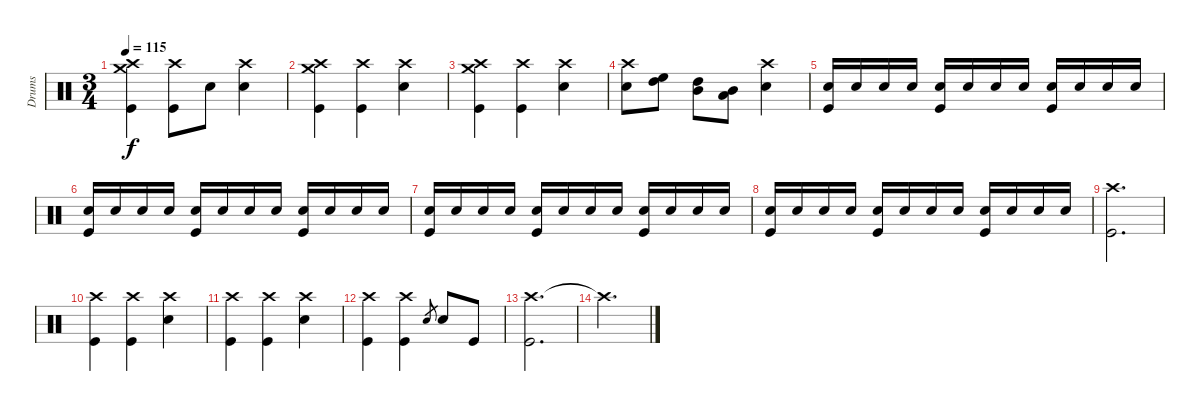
\track ("Drums" "Drums") {instrument percussion}
\staff {score}
\articulation defaults
\ts (3 4)
\tempo 115
\clef neutral
\ks c
("Crash high (hit)" "Crash medium (hit)" "Kick (hit)").4{dy f} ("Crash high (hit)" "Kick (hit)").8 "Snare (hit) 2".8 ("Crash high (hit)" "Snare (hit) 2").4 |
("Crash high (hit)" "Crash medium (hit)" "Kick (hit)").4 ("Crash high (hit)" "Kick (hit)").4 ("Crash high (hit)" "Snare (hit) 2").4 |
("Crash high (hit)" "Crash medium (hit)" "Kick (hit)").4 ("Crash high (hit)" "Kick (hit)").4 ("Crash high (hit)" "Snare (hit) 2").4 |
("Crash high (hit)" "Snare (hit) 2").8 ("High Tom (hit)" "High Floor Tom (hit)").8 ("High Tom (hit)" "Mid Tom (hit)").8 ("Mid Tom (hit)" "Low Tom (hit)").8 ("Crash high (hit)" "Snare (hit) 2").4 |
("Snare (hit) 2" "Kick (hit)").16 "Snare (hit) 2".16 "Snare (hit) 2".16 "Snare (hit) 2".16 ("Snare (hit) 2" "Kick (hit)").16 "Snare (hit) 2".16 "Snare (hit) 2".16 "Snare (hit) 2".16 ("Snare (hit) 2" "Kick (hit)").16 "Snare (hit) 2".16 "Snare (hit) 2".16 "Snare (hit) 2".16 |
("Snare (hit) 2" "Kick (hit)").16 "Snare (hit) 2".16 "Snare (hit) 2".16 "Snare (hit) 2".16 ("Snare (hit) 2" "Kick (hit)").16 "Snare (hit) 2".16 "Snare (hit) 2".16 "Snare (hit) 2".16 ("Snare (hit) 2" "Kick (hit)").16 "Snare (hit) 2".16 "Snare (hit) 2".16 "Snare (hit) 2".16 |
("Snare (hit) 2" "Kick (hit)").16 "Snare (hit) 2".16 "Snare (hit) 2".16 "Snare (hit) 2".16 ("Snare (hit) 2" "Kick (hit)").16 "Snare (hit) 2".16 "Snare (hit) 2".16 "Snare (hit) 2".16 ("Snare (hit) 2" "Kick (hit)").16 "Snare (hit) 2".16 "Snare (hit) 2".16 "Snare (hit) 2".16 |
("Snare (hit) 2" "Kick (hit)").16 "Snare (hit) 2".16 "Snare (hit) 2".16 "Snare (hit) 2".16 ("Snare (hit) 2" "Kick (hit)").16 "Snare (hit) 2".16 "Snare (hit) 2".16 "Snare (hit) 2".16 ("Snare (hit) 2" "Kick (hit)").16 "Snare (hit) 2".16 "Snare (hit) 2".16 "Snare (hit) 2".16 |
("Crash high (hit)" "Kick (hit)").2{d} |
("Crash high (hit)" "Kick (hit)").4 ("Crash high (hit)" "Kick (hit)").4 ("Crash high (hit)" "Snare (hit) 2").4 |
("Crash high (hit)" "Kick (hit)").4 ("Crash high (hit)" "Kick (hit)").4 ("Crash high (hit)" "Snare (hit) 2").4 |
("Crash high (hit)" "Kick (hit)").4 ("Crash high (hit)" "Kick (hit)").4 "Snare (hit) 2".8{gr} "Snare (hit) 2".8 "Kick (hit)".8 |
("Crash high (hit)" "Kick (hit)").2{d} |
"Crash high (hit)"{t}.2{d}
